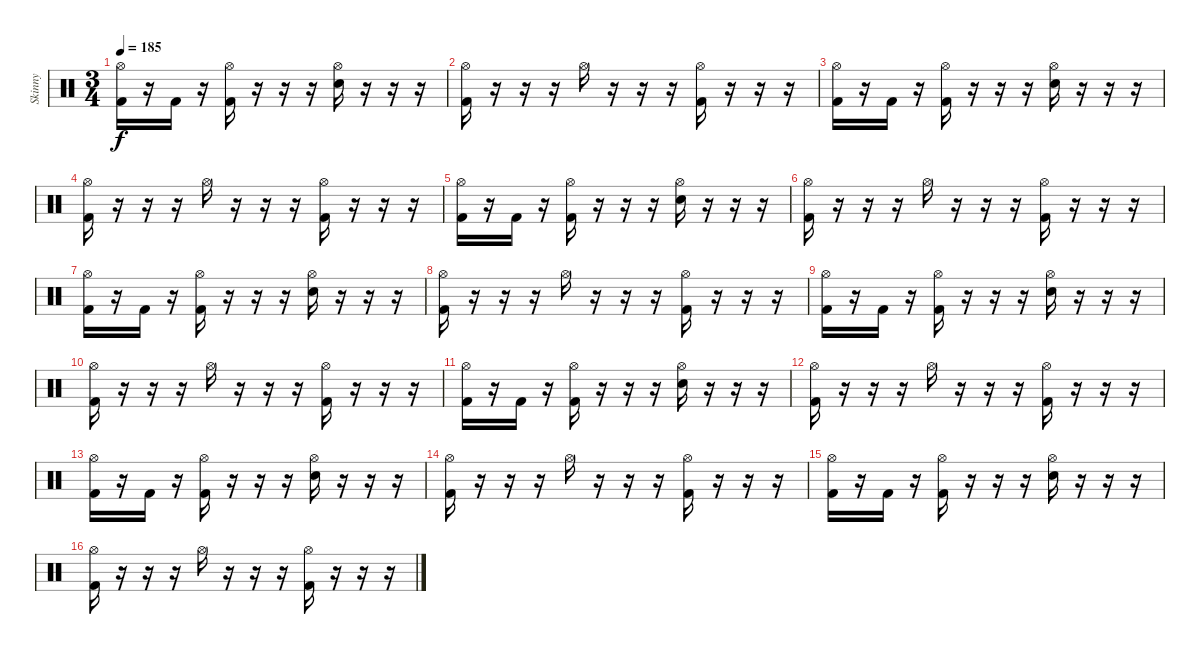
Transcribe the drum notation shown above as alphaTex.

\track ("Skinny" "Skinny") {instrument percussion}
\staff {score}
\articulation defaults
\ts (3 4)
\tempo 185
\clef neutral
\ks c
("Hi-Hat (open)" "Kick (hit) 2").16{dy f} r.16 "Kick (hit) 2".16 r.16 ("Hi-Hat (open)" "Kick (hit) 2").16 r.16 r.16 r.16 ("Hi-Hat (open)" "Snare (hit) 2").16 r.16 r.16 r.16 |
("Hi-Hat (open)" "Kick (hit) 2").16 r.16 r.16 r.16 "Hi-Hat (open)".16 r.16 r.16 r.16 ("Hi-Hat (open)" "Kick (hit) 2").16 r.16 r.16 r.16 |
("Hi-Hat (open)" "Kick (hit) 2").16 r.16 "Kick (hit) 2".16 r.16 ("Hi-Hat (open)" "Kick (hit) 2").16 r.16 r.16 r.16 ("Hi-Hat (open)" "Snare (hit) 2").16 r.16 r.16 r.16 |
("Hi-Hat (open)" "Kick (hit) 2").16 r.16 r.16 r.16 "Hi-Hat (open)".16 r.16 r.16 r.16 ("Hi-Hat (open)" "Kick (hit) 2").16 r.16 r.16 r.16 |
("Hi-Hat (open)" "Kick (hit) 2").16 r.16 "Kick (hit) 2".16 r.16 ("Hi-Hat (open)" "Kick (hit) 2").16 r.16 r.16 r.16 ("Hi-Hat (open)" "Snare (hit) 2").16 r.16 r.16 r.16 |
("Hi-Hat (open)" "Kick (hit) 2").16 r.16 r.16 r.16 "Hi-Hat (open)".16 r.16 r.16 r.16 ("Hi-Hat (open)" "Kick (hit) 2").16 r.16 r.16 r.16 |
("Hi-Hat (open)" "Kick (hit) 2").16 r.16 "Kick (hit) 2".16 r.16 ("Hi-Hat (open)" "Kick (hit) 2").16 r.16 r.16 r.16 ("Hi-Hat (open)" "Snare (hit) 2").16 r.16 r.16 r.16 |
("Hi-Hat (open)" "Kick (hit) 2").16 r.16 r.16 r.16 "Hi-Hat (open)".16 r.16 r.16 r.16 ("Hi-Hat (open)" "Kick (hit) 2").16 r.16 r.16 r.16 |
("Hi-Hat (open)" "Kick (hit) 2").16 r.16 "Kick (hit) 2".16 r.16 ("Hi-Hat (open)" "Kick (hit) 2").16 r.16 r.16 r.16 ("Hi-Hat (open)" "Snare (hit) 2").16 r.16 r.16 r.16 |
("Hi-Hat (open)" "Kick (hit) 2").16 r.16 r.16 r.16 "Hi-Hat (open)".16 r.16 r.16 r.16 ("Hi-Hat (open)" "Kick (hit) 2").16 r.16 r.16 r.16 |
("Hi-Hat (open)" "Kick (hit) 2").16 r.16 "Kick (hit) 2".16 r.16 ("Hi-Hat (open)" "Kick (hit) 2").16 r.16 r.16 r.16 ("Hi-Hat (open)" "Snare (hit) 2").16 r.16 r.16 r.16 |
("Hi-Hat (open)" "Kick (hit) 2").16 r.16 r.16 r.16 "Hi-Hat (open)".16 r.16 r.16 r.16 ("Hi-Hat (open)" "Kick (hit) 2").16 r.16 r.16 r.16 |
("Hi-Hat (open)" "Kick (hit) 2").16 r.16 "Kick (hit) 2".16 r.16 ("Hi-Hat (open)" "Kick (hit) 2").16 r.16 r.16 r.16 ("Hi-Hat (open)" "Snare (hit) 2").16 r.16 r.16 r.16 |
("Hi-Hat (open)" "Kick (hit) 2").16 r.16 r.16 r.16 "Hi-Hat (open)".16 r.16 r.16 r.16 ("Hi-Hat (open)" "Kick (hit) 2").16 r.16 r.16 r.16 |
("Hi-Hat (open)" "Kick (hit) 2").16 r.16 "Kick (hit) 2".16 r.16 ("Hi-Hat (open)" "Kick (hit) 2").16 r.16 r.16 r.16 ("Hi-Hat (open)" "Snare (hit) 2").16 r.16 r.16 r.16 |
("Hi-Hat (open)" "Kick (hit) 2").16 r.16 r.16 r.16 "Hi-Hat (open)".16 r.16 r.16 r.16 ("Hi-Hat (open)" "Kick (hit) 2").16 r.16 r.16 r.16
